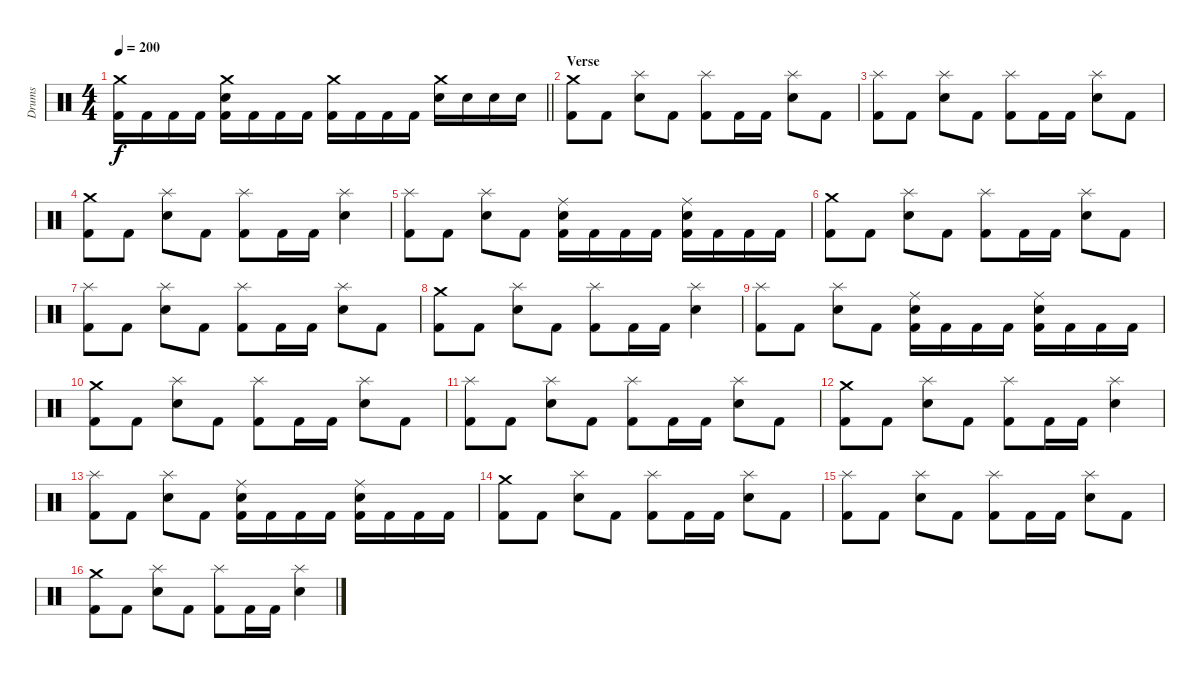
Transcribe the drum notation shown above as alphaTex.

\track ("Drums" "Drums") {instrument percussion}
\staff {score}
\articulation defaults
\ts (4 4)
\tempo 200
\clef neutral
\barLineRight lightlight
\ks c
("Crash medium (hit)" "Kick (hit) 2").16{dy f} "Kick (hit) 2".16 "Kick (hit) 2".16 "Kick (hit) 2".16 ("Crash medium (hit)" "Electric Snare (hit)" "Kick (hit) 2").16 "Kick (hit) 2".16 "Kick (hit) 2".16 "Kick (hit) 2".16 ("Crash medium (hit)" "Kick (hit) 2").16 "Kick (hit) 2".16 "Kick (hit) 2".16 "Kick (hit) 2".16 ("Crash medium (hit)" "Electric Snare (hit)").16 "Electric Snare (hit)".16 "Electric Snare (hit)".16 "Electric Snare (hit)".16 |
\section ("" "Verse ")
("Crash medium (hit)" "Kick (hit) 2").8 "Kick (hit) 2".8 ("Splash (hit)" "Electric Snare (hit)").8 "Kick (hit) 2".8 ("Splash (hit)" "Kick (hit) 2").8 "Kick (hit) 2".16 "Kick (hit) 2".16 ("Splash (hit)" "Electric Snare (hit)").8 "Kick (hit) 2".8 |
("Splash (hit)" "Kick (hit) 2").8 "Kick (hit) 2".8 ("Splash (hit)" "Electric Snare (hit)").8 "Kick (hit) 2".8 ("Splash (hit)" "Kick (hit) 2").8 "Kick (hit) 2".16 "Kick (hit) 2".16 ("Splash (hit)" "Electric Snare (hit)").8 "Kick (hit) 2".8 |
("Crash medium (hit)" "Kick (hit) 2").8 "Kick (hit) 2".8 ("Splash (hit)" "Electric Snare (hit)").8 "Kick (hit) 2".8 ("Splash (hit)" "Kick (hit) 2").8 "Kick (hit) 2".16 "Kick (hit) 2".16 ("Splash (hit)" "Electric Snare (hit)").4 |
("Splash (hit)" "Kick (hit) 2").8 "Kick (hit) 2".8 ("Splash (hit)" "Electric Snare (hit)").8 "Kick (hit) 2".8 ("Ride (middle)" "Electric Snare (hit)" "Kick (hit) 2").16 "Kick (hit) 2".16 "Kick (hit) 2".16 "Kick (hit) 2".16 ("Ride (middle)" "Electric Snare (hit)" "Kick (hit) 2").16 "Kick (hit) 2".16 "Kick (hit) 2".16 "Kick (hit) 2".16 |
("Crash medium (hit)" "Kick (hit) 2").8 "Kick (hit) 2".8 ("Splash (hit)" "Electric Snare (hit)").8 "Kick (hit) 2".8 ("Splash (hit)" "Kick (hit) 2").8 "Kick (hit) 2".16 "Kick (hit) 2".16 ("Splash (hit)" "Electric Snare (hit)").8 "Kick (hit) 2".8 |
("Splash (hit)" "Kick (hit) 2").8 "Kick (hit) 2".8 ("Splash (hit)" "Electric Snare (hit)").8 "Kick (hit) 2".8 ("Splash (hit)" "Kick (hit) 2").8 "Kick (hit) 2".16 "Kick (hit) 2".16 ("Splash (hit)" "Electric Snare (hit)").8 "Kick (hit) 2".8 |
("Crash medium (hit)" "Kick (hit) 2").8 "Kick (hit) 2".8 ("Splash (hit)" "Electric Snare (hit)").8 "Kick (hit) 2".8 ("Splash (hit)" "Kick (hit) 2").8 "Kick (hit) 2".16 "Kick (hit) 2".16 ("Splash (hit)" "Electric Snare (hit)").4 |
("Splash (hit)" "Kick (hit) 2").8 "Kick (hit) 2".8 ("Splash (hit)" "Electric Snare (hit)").8 "Kick (hit) 2".8 ("Ride (middle)" "Electric Snare (hit)" "Kick (hit) 2").16 "Kick (hit) 2".16 "Kick (hit) 2".16 "Kick (hit) 2".16 ("Ride (middle)" "Electric Snare (hit)" "Kick (hit) 2").16 "Kick (hit) 2".16 "Kick (hit) 2".16 "Kick (hit) 2".16 |
("Crash medium (hit)" "Kick (hit) 2").8 "Kick (hit) 2".8 ("Splash (hit)" "Electric Snare (hit)").8 "Kick (hit) 2".8 ("Splash (hit)" "Kick (hit) 2").8 "Kick (hit) 2".16 "Kick (hit) 2".16 ("Splash (hit)" "Electric Snare (hit)").8 "Kick (hit) 2".8 |
("Splash (hit)" "Kick (hit) 2").8 "Kick (hit) 2".8 ("Splash (hit)" "Electric Snare (hit)").8 "Kick (hit) 2".8 ("Splash (hit)" "Kick (hit) 2").8 "Kick (hit) 2".16 "Kick (hit) 2".16 ("Splash (hit)" "Electric Snare (hit)").8 "Kick (hit) 2".8 |
("Crash medium (hit)" "Kick (hit) 2").8 "Kick (hit) 2".8 ("Splash (hit)" "Electric Snare (hit)").8 "Kick (hit) 2".8 ("Splash (hit)" "Kick (hit) 2").8 "Kick (hit) 2".16 "Kick (hit) 2".16 ("Splash (hit)" "Electric Snare (hit)").4 |
("Splash (hit)" "Kick (hit) 2").8 "Kick (hit) 2".8 ("Splash (hit)" "Electric Snare (hit)").8 "Kick (hit) 2".8 ("Ride (middle)" "Electric Snare (hit)" "Kick (hit) 2").16 "Kick (hit) 2".16 "Kick (hit) 2".16 "Kick (hit) 2".16 ("Ride (middle)" "Electric Snare (hit)" "Kick (hit) 2").16 "Kick (hit) 2".16 "Kick (hit) 2".16 "Kick (hit) 2".16 |
("Crash medium (hit)" "Kick (hit) 2").8 "Kick (hit) 2".8 ("Splash (hit)" "Electric Snare (hit)").8 "Kick (hit) 2".8 ("Splash (hit)" "Kick (hit) 2").8 "Kick (hit) 2".16 "Kick (hit) 2".16 ("Splash (hit)" "Electric Snare (hit)").8 "Kick (hit) 2".8 |
("Splash (hit)" "Kick (hit) 2").8 "Kick (hit) 2".8 ("Splash (hit)" "Electric Snare (hit)").8 "Kick (hit) 2".8 ("Splash (hit)" "Kick (hit) 2").8 "Kick (hit) 2".16 "Kick (hit) 2".16 ("Splash (hit)" "Electric Snare (hit)").8 "Kick (hit) 2".8 |
("Crash medium (hit)" "Kick (hit) 2").8 "Kick (hit) 2".8 ("Splash (hit)" "Electric Snare (hit)").8 "Kick (hit) 2".8 ("Splash (hit)" "Kick (hit) 2").8 "Kick (hit) 2".16 "Kick (hit) 2".16 ("Splash (hit)" "Electric Snare (hit)").4
